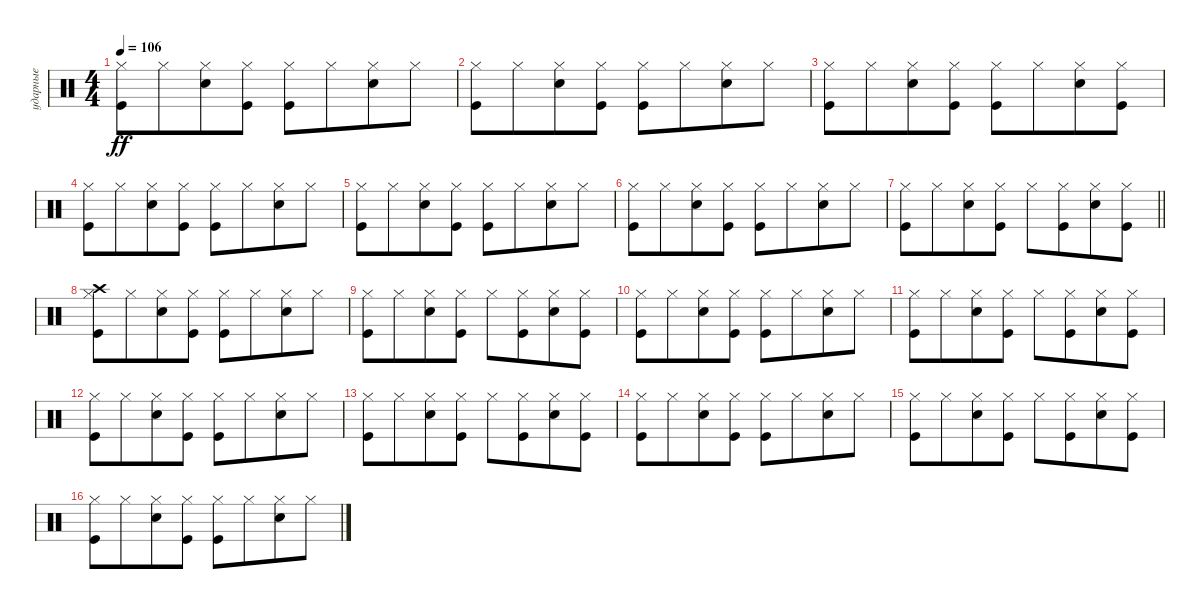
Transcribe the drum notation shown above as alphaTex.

\track ("ударные" "ударные") {instrument percussion}
\staff {score}
\articulation defaults
\ts (4 4)
\tempo 106
\clef neutral
\ks aminor
("Hi-Hat (closed)" "Kick (hit)").8{dy ff} "Hi-Hat (closed)".8{beam merge} ("Hi-Hat (closed)" "Snare (hit) 2").8 ("Hi-Hat (closed)" "Kick (hit)").8 ("Hi-Hat (closed)" "Kick (hit)").8 "Hi-Hat (closed)".8{beam merge} ("Hi-Hat (closed)" "Snare (hit) 2").8 "Hi-Hat (closed)".8 |
("Hi-Hat (closed)" "Kick (hit)").8 "Hi-Hat (closed)".8{beam merge} ("Hi-Hat (closed)" "Snare (hit) 2").8 ("Hi-Hat (closed)" "Kick (hit)").8 ("Hi-Hat (closed)" "Kick (hit)").8 "Hi-Hat (closed)".8{beam merge} ("Hi-Hat (closed)" "Snare (hit) 2").8 "Hi-Hat (closed)".8 |
("Hi-Hat (closed)" "Kick (hit)").8 "Hi-Hat (closed)".8{beam merge} ("Hi-Hat (closed)" "Snare (hit) 2").8 ("Hi-Hat (closed)" "Kick (hit)").8 ("Hi-Hat (closed)" "Kick (hit)").8 "Hi-Hat (closed)".8{beam merge} ("Hi-Hat (closed)" "Snare (hit) 2").8 ("Hi-Hat (closed)" "Kick (hit)").8 |
("Hi-Hat (closed)" "Kick (hit)").8 "Hi-Hat (closed)".8{beam merge} ("Hi-Hat (closed)" "Snare (hit) 2").8 ("Hi-Hat (closed)" "Kick (hit)").8 ("Hi-Hat (closed)" "Kick (hit)").8 "Hi-Hat (closed)".8{beam merge} ("Hi-Hat (closed)" "Snare (hit) 2").8 "Hi-Hat (closed)".8 |
("Hi-Hat (closed)" "Kick (hit)").8 "Hi-Hat (closed)".8{beam merge} ("Hi-Hat (closed)" "Snare (hit) 2").8 ("Hi-Hat (closed)" "Kick (hit)").8 ("Hi-Hat (closed)" "Kick (hit)").8 "Hi-Hat (closed)".8{beam merge} ("Hi-Hat (closed)" "Snare (hit) 2").8 "Hi-Hat (closed)".8 |
("Hi-Hat (closed)" "Kick (hit)").8 "Hi-Hat (closed)".8{beam merge} ("Hi-Hat (closed)" "Snare (hit) 2").8 ("Hi-Hat (closed)" "Kick (hit)").8 ("Hi-Hat (closed)" "Kick (hit)").8 "Hi-Hat (closed)".8{beam merge} ("Hi-Hat (closed)" "Snare (hit) 2").8 "Hi-Hat (closed)".8 |
\barLineRight lightlight
("Hi-Hat (closed)" "Kick (hit)").8 "Hi-Hat (closed)".8{beam merge} ("Hi-Hat (closed)" "Snare (hit) 2").8 ("Hi-Hat (closed)" "Kick (hit)").8 "Hi-Hat (closed)".8 ("Hi-Hat (closed)" "Kick (hit)").8{beam merge} ("Hi-Hat (closed)" "Snare (hit) 2").8 ("Hi-Hat (closed)" "Kick (hit)").8 |
\section ("" "")
("Hi-Hat (closed)" "Crash high (hit)" "Kick (hit)").8 "Hi-Hat (closed)".8{beam merge} ("Hi-Hat (closed)" "Snare (hit) 2").8 ("Hi-Hat (closed)" "Kick (hit)").8 ("Hi-Hat (closed)" "Kick (hit)").8 "Hi-Hat (closed)".8{beam merge} ("Hi-Hat (closed)" "Snare (hit) 2").8 "Hi-Hat (closed)".8 |
("Hi-Hat (closed)" "Kick (hit)").8 "Hi-Hat (closed)".8{beam merge} ("Hi-Hat (closed)" "Snare (hit) 2").8 ("Hi-Hat (closed)" "Kick (hit)").8 "Hi-Hat (closed)".8 ("Hi-Hat (closed)" "Kick (hit)").8{beam merge} ("Hi-Hat (closed)" "Snare (hit) 2").8 ("Hi-Hat (closed)" "Kick (hit)").8 |
("Hi-Hat (closed)" "Kick (hit)").8 "Hi-Hat (closed)".8{beam merge} ("Hi-Hat (closed)" "Snare (hit) 2").8 ("Hi-Hat (closed)" "Kick (hit)").8 ("Hi-Hat (closed)" "Kick (hit)").8 "Hi-Hat (closed)".8{beam merge} ("Hi-Hat (closed)" "Snare (hit) 2").8 "Hi-Hat (closed)".8 |
("Hi-Hat (closed)" "Kick (hit)").8 "Hi-Hat (closed)".8{beam merge} ("Hi-Hat (closed)" "Snare (hit) 2").8 ("Hi-Hat (closed)" "Kick (hit)").8 "Hi-Hat (closed)".8 ("Hi-Hat (closed)" "Kick (hit)").8{beam merge} ("Hi-Hat (closed)" "Snare (hit) 2").8 ("Hi-Hat (closed)" "Kick (hit)").8 |
("Hi-Hat (closed)" "Kick (hit)").8 "Hi-Hat (closed)".8{beam merge} ("Hi-Hat (closed)" "Snare (hit) 2").8 ("Hi-Hat (closed)" "Kick (hit)").8 ("Hi-Hat (closed)" "Kick (hit)").8 "Hi-Hat (closed)".8{beam merge} ("Hi-Hat (closed)" "Snare (hit) 2").8 "Hi-Hat (closed)".8 |
("Hi-Hat (closed)" "Kick (hit)").8 "Hi-Hat (closed)".8{beam merge} ("Hi-Hat (closed)" "Snare (hit) 2").8 ("Hi-Hat (closed)" "Kick (hit)").8 "Hi-Hat (closed)".8 ("Hi-Hat (closed)" "Kick (hit)").8{beam merge} ("Hi-Hat (closed)" "Snare (hit) 2").8 ("Hi-Hat (closed)" "Kick (hit)").8 |
("Hi-Hat (closed)" "Kick (hit)").8 "Hi-Hat (closed)".8{beam merge} ("Hi-Hat (closed)" "Snare (hit) 2").8 ("Hi-Hat (closed)" "Kick (hit)").8 ("Hi-Hat (closed)" "Kick (hit)").8 "Hi-Hat (closed)".8{beam merge} ("Hi-Hat (closed)" "Snare (hit) 2").8 "Hi-Hat (closed)".8 |
("Hi-Hat (closed)" "Kick (hit)").8 "Hi-Hat (closed)".8{beam merge} ("Hi-Hat (closed)" "Snare (hit) 2").8 ("Hi-Hat (closed)" "Kick (hit)").8 "Hi-Hat (closed)".8 ("Hi-Hat (closed)" "Kick (hit)").8{beam merge} ("Hi-Hat (closed)" "Snare (hit) 2").8 ("Hi-Hat (closed)" "Kick (hit)").8 |
("Hi-Hat (closed)" "Kick (hit)").8 "Hi-Hat (closed)".8{beam merge} ("Hi-Hat (closed)" "Snare (hit) 2").8 ("Hi-Hat (closed)" "Kick (hit)").8 ("Hi-Hat (closed)" "Kick (hit)").8 "Hi-Hat (closed)".8{beam merge} ("Hi-Hat (closed)" "Snare (hit) 2").8 "Hi-Hat (closed)".8
